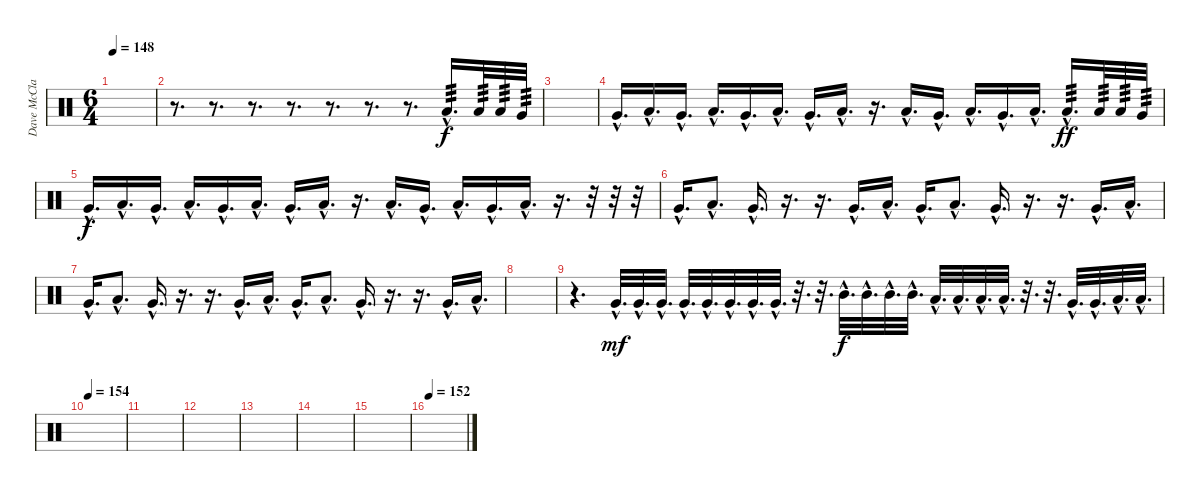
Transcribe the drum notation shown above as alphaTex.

\track ("Dave McClain" "Dave McCla") {instrument percussion}
\staff {score}
\articulation defaults
\ts (6 4)
\tempo 148
\clef neutral
\ks c
|
r.8{d} r.8{d} r.8{d} r.8{d} r.8{d} r.8{d} r.8{d} "Low Tom (hit)"{hac}.16{d tp 3} "Low Tom (hit)".32{tp 3} "Low Tom (hit)".32{tp 3} "Very Low Tom (hit)".32{tp 3} |
|
"Very Low Tom (hit)"{hac}.16{d dy f} "Low Tom (hit)"{hac}.16{d} "Very Low Tom (hit)"{hac}.16{d} "Low Tom (hit)"{hac}.16{d} "Very Low Tom (hit)"{hac}.16{d} "Low Tom (hit)"{hac}.16{d} "Very Low Tom (hit)"{hac}.16{d} "Low Tom (hit)"{hac}.16{d} r.16{d} "Low Tom (hit)"{hac}.16{d} "Very Low Tom (hit)"{hac}.16{d} "Low Tom (hit)"{hac}.16{d} "Very Low Tom (hit)"{hac}.16{d} "Low Tom (hit)"{hac}.16{d} "Low Tom (hit)"{hac}.16{d tp 3 dy ff} "Low Tom (hit)".32{tp 3} "Low Tom (hit)".32{tp 3} "Very Low Tom (hit)".32{tp 3} |
"Very Low Tom (hit)"{hac}.16{d dy f} "Low Tom (hit)"{hac}.16{d} "Very Low Tom (hit)"{hac}.16{d} "Low Tom (hit)"{hac}.16{d} "Very Low Tom (hit)"{hac}.16{d} "Low Tom (hit)"{hac}.16{d} "Very Low Tom (hit)"{hac}.16{d} "Low Tom (hit)"{hac}.16{d} r.16{d} "Low Tom (hit)"{hac}.16{d} "Very Low Tom (hit)"{hac}.16{d} "Low Tom (hit)"{hac}.16{d} "Very Low Tom (hit)"{hac}.16{d} "Low Tom (hit)"{hac}.16{d} r.16{d} r.32 r.32 r.32 |
"Very Low Tom (hit)"{hac}.16{d} "Low Tom (hit)"{hac}.8{d} "Very Low Tom (hit)"{hac}.16{d} r.16{d} r.16{d} "Very Low Tom (hit)"{hac}.16{d} "Low Tom (hit)"{hac}.16{d} "Very Low Tom (hit)"{hac}.16{d} "Low Tom (hit)"{hac}.8{d} "Very Low Tom (hit)"{hac}.16{d} r.16{d} r.16{d} "Very Low Tom (hit)"{hac}.16{d} "Low Tom (hit)"{hac}.16{d} |
"Very Low Tom (hit)"{hac}.16{d} "Low Tom (hit)"{hac}.8{d} "Very Low Tom (hit)"{hac}.16{d} r.16{d} r.16{d} "Very Low Tom (hit)"{hac}.16{d} "Low Tom (hit)"{hac}.16{d} "Very Low Tom (hit)"{hac}.16{d} "Low Tom (hit)"{hac}.8{d} "Very Low Tom (hit)"{hac}.16{d} r.16{d} r.16{d} "Very Low Tom (hit)"{hac}.16{d} "Low Tom (hit)"{hac}.16{d} |
|
r.4{d} "Very Low Tom (hit)"{hac}.32{d dy mf} "Very Low Tom (hit)"{hac}.32{d} "Very Low Tom (hit)"{hac}.32{d} "Very Low Tom (hit)"{hac}.32{d} "Very Low Tom (hit)"{hac}.32{d} "Very Low Tom (hit)"{hac}.32{d} "Very Low Tom (hit)"{hac}.32{d} "Very Low Tom (hit)"{hac}.32{d} r.32{d} r.32{d} "Mid Tom (hit)"{hac}.32{d dy f} "Mid Tom (hit)"{hac}.32{d} "Mid Tom (hit)"{hac}.32{d} "Mid Tom (hit)"{hac}.32{d} "Low Tom (hit)"{hac}.32{d} "Low Tom (hit)"{hac}.32{d} "Low Tom (hit)"{hac}.32{d} "Low Tom (hit)"{hac}.32{d} r.32{d} r.32{d} "Very Low Tom (hit)"{hac}.32{d} "Very Low Tom (hit)"{hac}.32{d} "Low Floor Tom (hit)"{hac}.32{d} "Low Floor Tom (hit)"{hac}.32{d} |
\tempo 154
|
|
|
|
|
|
\tempo 152
